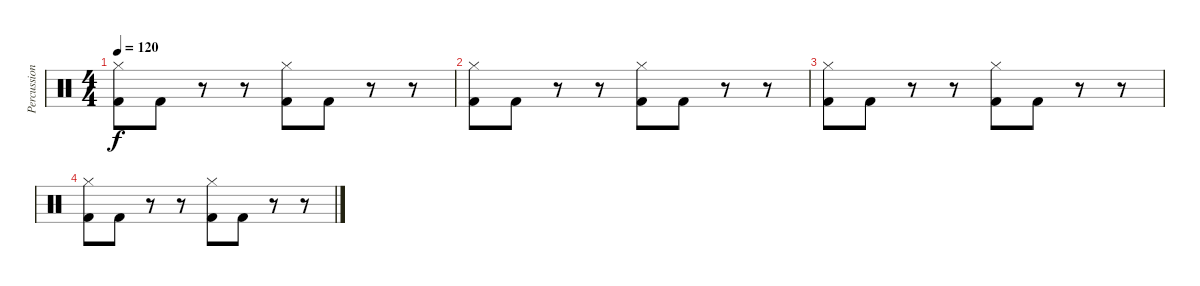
\track ("Percussions" "Percussion") {instrument percussion}
\staff {score}
\articulation defaults
\ts (4 4)
\tempo 120
\clef neutral
\ks c
("Hi-Hat (closed)" "Kick (hit) 2").8{dy f} "Kick (hit) 2".8 r.8 r.8 ("Hi-Hat (closed)" "Kick (hit) 2").8 "Kick (hit) 2".8 r.8 r.8 |
("Hi-Hat (closed)" "Kick (hit) 2").8 "Kick (hit) 2".8 r.8 r.8 ("Hi-Hat (closed)" "Kick (hit) 2").8 "Kick (hit) 2".8 r.8 r.8 |
("Hi-Hat (closed)" "Kick (hit) 2").8 "Kick (hit) 2".8 r.8 r.8 ("Hi-Hat (closed)" "Kick (hit) 2").8 "Kick (hit) 2".8 r.8 r.8 |
("Hi-Hat (closed)" "Kick (hit) 2").8 "Kick (hit) 2".8 r.8 r.8 ("Hi-Hat (closed)" "Kick (hit) 2").8 "Kick (hit) 2".8 r.8 r.8
